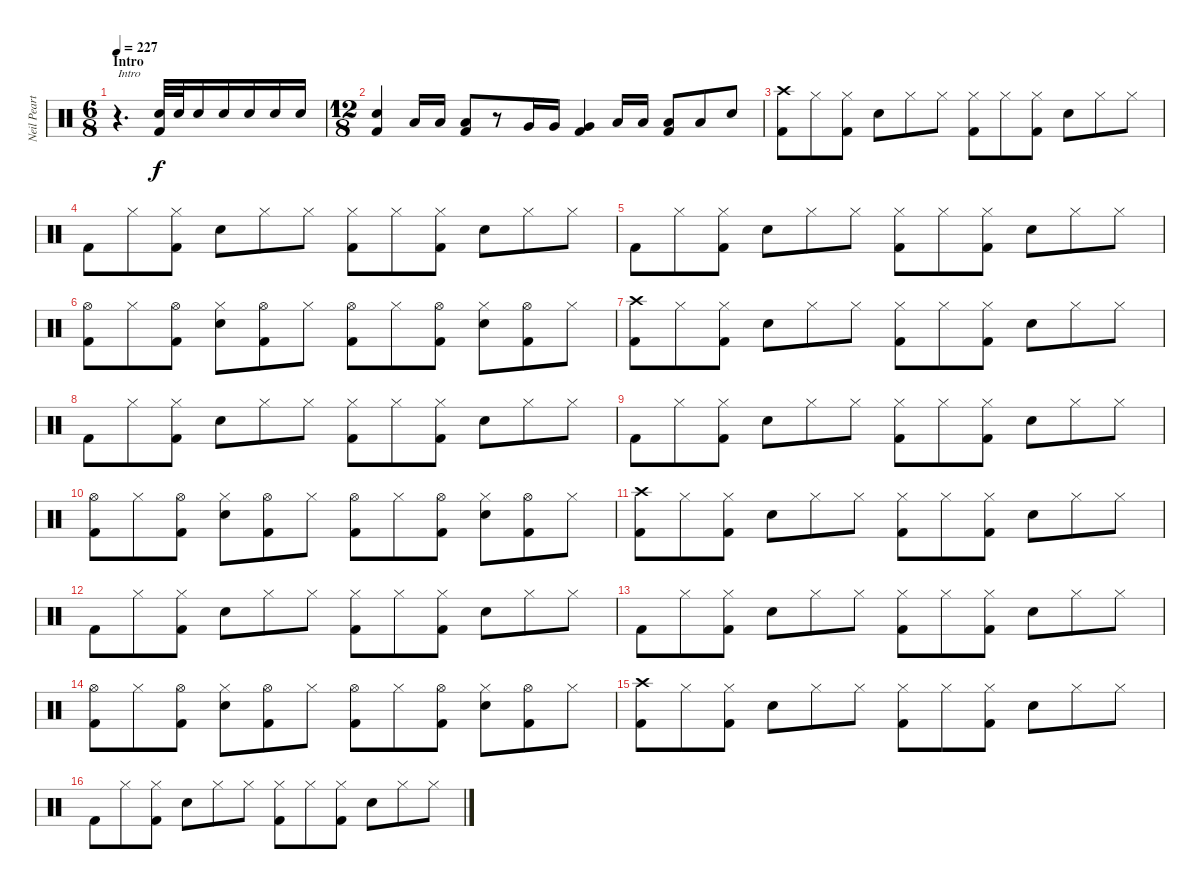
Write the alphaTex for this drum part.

\track ("Neil Peart" "Neil Peart") {instrument percussion}
\staff {score}
\articulation defaults
\ts (6 8)
\section ("" "Intro")
\tempo 227
\clef neutral
\ks c
r.4{d txt "Intro" dy f} ("Electric Snare (hit)" "Kick (hit) 2").32 "Electric Snare (hit)".32 "Electric Snare (hit)".16 "Electric Snare (hit)".16 "Electric Snare (hit)".16 "Electric Snare (hit)".16 "Electric Snare (hit)".16 |
\ts (12 8)
("Electric Snare (hit)" "Kick (hit) 2").4 "Low Floor Tom (hit)".16 "Low Floor Tom (hit)".16 ("Low Floor Tom (hit)" "Kick (hit) 2").8 r.8 "Very Low Tom (hit)".16 "Very Low Tom (hit)".16 ("Very Low Tom (hit)" "Kick (hit) 2").4 "Low Tom (hit)".16 "Low Tom (hit)".16 ("Low Tom (hit)" "Kick (hit) 2").8 "Low Tom (hit)".8 "Electric Snare (hit)".8 |
("Crash high (hit)" "Kick (hit) 2").8 "Hi-Hat (closed)".8 ("Hi-Hat (closed)" "Kick (hit) 2").8 "Electric Snare (hit)".8 "Hi-Hat (closed)".8 "Hi-Hat (closed)".8 ("Hi-Hat (closed)" "Kick (hit) 2").8 "Hi-Hat (closed)".8 ("Hi-Hat (closed)" "Kick (hit) 2").8 "Electric Snare (hit)".8 "Hi-Hat (closed)".8 "Hi-Hat (closed)".8 |
"Kick (hit) 2".8 "Hi-Hat (closed)".8 ("Hi-Hat (closed)" "Kick (hit) 2").8 "Electric Snare (hit)".8 "Hi-Hat (closed)".8 "Hi-Hat (closed)".8 ("Hi-Hat (closed)" "Kick (hit) 2").8 "Hi-Hat (closed)".8 ("Hi-Hat (closed)" "Kick (hit) 2").8 "Electric Snare (hit)".8 "Hi-Hat (closed)".8 "Hi-Hat (closed)".8 |
"Kick (hit) 2".8 "Hi-Hat (closed)".8 ("Hi-Hat (closed)" "Kick (hit) 2").8 "Electric Snare (hit)".8 "Hi-Hat (closed)".8 "Hi-Hat (closed)".8 ("Hi-Hat (closed)" "Kick (hit) 2").8 "Hi-Hat (closed)".8 ("Hi-Hat (closed)" "Kick (hit) 2").8 "Electric Snare (hit)".8 "Hi-Hat (closed)".8 "Hi-Hat (closed)".8 |
("Hi-Hat (open)" "Kick (hit) 2").8 "Hi-Hat (closed)".8 ("Hi-Hat (open)" "Kick (hit) 2").8 ("Electric Snare (hit)" "Hi-Hat (closed)").8 ("Hi-Hat (open)" "Kick (hit) 2").8 "Hi-Hat (closed)".8 ("Hi-Hat (open)" "Kick (hit) 2").8 "Hi-Hat (closed)".8 ("Hi-Hat (open)" "Kick (hit) 2").8 ("Electric Snare (hit)" "Hi-Hat (closed)").8 ("Hi-Hat (open)" "Kick (hit) 2").8 "Hi-Hat (closed)".8 |
("Crash high (hit)" "Kick (hit) 2").8 "Hi-Hat (closed)".8 ("Hi-Hat (closed)" "Kick (hit) 2").8 "Electric Snare (hit)".8 "Hi-Hat (closed)".8 "Hi-Hat (closed)".8 ("Hi-Hat (closed)" "Kick (hit) 2").8 "Hi-Hat (closed)".8 ("Hi-Hat (closed)" "Kick (hit) 2").8 "Electric Snare (hit)".8 "Hi-Hat (closed)".8 "Hi-Hat (closed)".8 |
"Kick (hit) 2".8 "Hi-Hat (closed)".8 ("Hi-Hat (closed)" "Kick (hit) 2").8 "Electric Snare (hit)".8 "Hi-Hat (closed)".8 "Hi-Hat (closed)".8 ("Hi-Hat (closed)" "Kick (hit) 2").8 "Hi-Hat (closed)".8 ("Hi-Hat (closed)" "Kick (hit) 2").8 "Electric Snare (hit)".8 "Hi-Hat (closed)".8 "Hi-Hat (closed)".8 |
"Kick (hit) 2".8 "Hi-Hat (closed)".8 ("Hi-Hat (closed)" "Kick (hit) 2").8 "Electric Snare (hit)".8 "Hi-Hat (closed)".8 "Hi-Hat (closed)".8 ("Hi-Hat (closed)" "Kick (hit) 2").8 "Hi-Hat (closed)".8 ("Hi-Hat (closed)" "Kick (hit) 2").8 "Electric Snare (hit)".8 "Hi-Hat (closed)".8 "Hi-Hat (closed)".8 |
("Hi-Hat (open)" "Kick (hit) 2").8 "Hi-Hat (closed)".8 ("Hi-Hat (open)" "Kick (hit) 2").8 ("Electric Snare (hit)" "Hi-Hat (closed)").8 ("Hi-Hat (open)" "Kick (hit) 2").8 "Hi-Hat (closed)".8 ("Hi-Hat (open)" "Kick (hit) 2").8 "Hi-Hat (closed)".8 ("Hi-Hat (open)" "Kick (hit) 2").8 ("Electric Snare (hit)" "Hi-Hat (closed)").8 ("Hi-Hat (open)" "Kick (hit) 2").8 "Hi-Hat (closed)".8 |
("Crash high (hit)" "Kick (hit) 2").8 "Hi-Hat (closed)".8 ("Hi-Hat (closed)" "Kick (hit) 2").8 "Electric Snare (hit)".8 "Hi-Hat (closed)".8 "Hi-Hat (closed)".8 ("Hi-Hat (closed)" "Kick (hit) 2").8 "Hi-Hat (closed)".8 ("Hi-Hat (closed)" "Kick (hit) 2").8 "Electric Snare (hit)".8 "Hi-Hat (closed)".8 "Hi-Hat (closed)".8 |
"Kick (hit) 2".8 "Hi-Hat (closed)".8 ("Hi-Hat (closed)" "Kick (hit) 2").8 "Electric Snare (hit)".8 "Hi-Hat (closed)".8 "Hi-Hat (closed)".8 ("Hi-Hat (closed)" "Kick (hit) 2").8 "Hi-Hat (closed)".8 ("Hi-Hat (closed)" "Kick (hit) 2").8 "Electric Snare (hit)".8 "Hi-Hat (closed)".8 "Hi-Hat (closed)".8 |
"Kick (hit) 2".8 "Hi-Hat (closed)".8 ("Hi-Hat (closed)" "Kick (hit) 2").8 "Electric Snare (hit)".8 "Hi-Hat (closed)".8 "Hi-Hat (closed)".8 ("Hi-Hat (closed)" "Kick (hit) 2").8 "Hi-Hat (closed)".8 ("Hi-Hat (closed)" "Kick (hit) 2").8 "Electric Snare (hit)".8 "Hi-Hat (closed)".8 "Hi-Hat (closed)".8 |
("Hi-Hat (open)" "Kick (hit) 2").8 "Hi-Hat (closed)".8 ("Hi-Hat (open)" "Kick (hit) 2").8 ("Electric Snare (hit)" "Hi-Hat (closed)").8 ("Hi-Hat (open)" "Kick (hit) 2").8 "Hi-Hat (closed)".8 ("Hi-Hat (open)" "Kick (hit) 2").8 "Hi-Hat (closed)".8 ("Hi-Hat (open)" "Kick (hit) 2").8 ("Electric Snare (hit)" "Hi-Hat (closed)").8 ("Hi-Hat (open)" "Kick (hit) 2").8 "Hi-Hat (closed)".8 |
("Crash high (hit)" "Kick (hit) 2").8 "Hi-Hat (closed)".8 ("Hi-Hat (closed)" "Kick (hit) 2").8 "Electric Snare (hit)".8 "Hi-Hat (closed)".8 "Hi-Hat (closed)".8 ("Hi-Hat (closed)" "Kick (hit) 2").8 "Hi-Hat (closed)".8 ("Hi-Hat (closed)" "Kick (hit) 2").8 "Electric Snare (hit)".8 "Hi-Hat (closed)".8 "Hi-Hat (closed)".8 |
"Kick (hit) 2".8 "Hi-Hat (closed)".8 ("Hi-Hat (closed)" "Kick (hit) 2").8 "Electric Snare (hit)".8 "Hi-Hat (closed)".8 "Hi-Hat (closed)".8 ("Hi-Hat (closed)" "Kick (hit) 2").8 "Hi-Hat (closed)".8 ("Hi-Hat (closed)" "Kick (hit) 2").8 "Electric Snare (hit)".8 "Hi-Hat (closed)".8 "Hi-Hat (closed)".8
